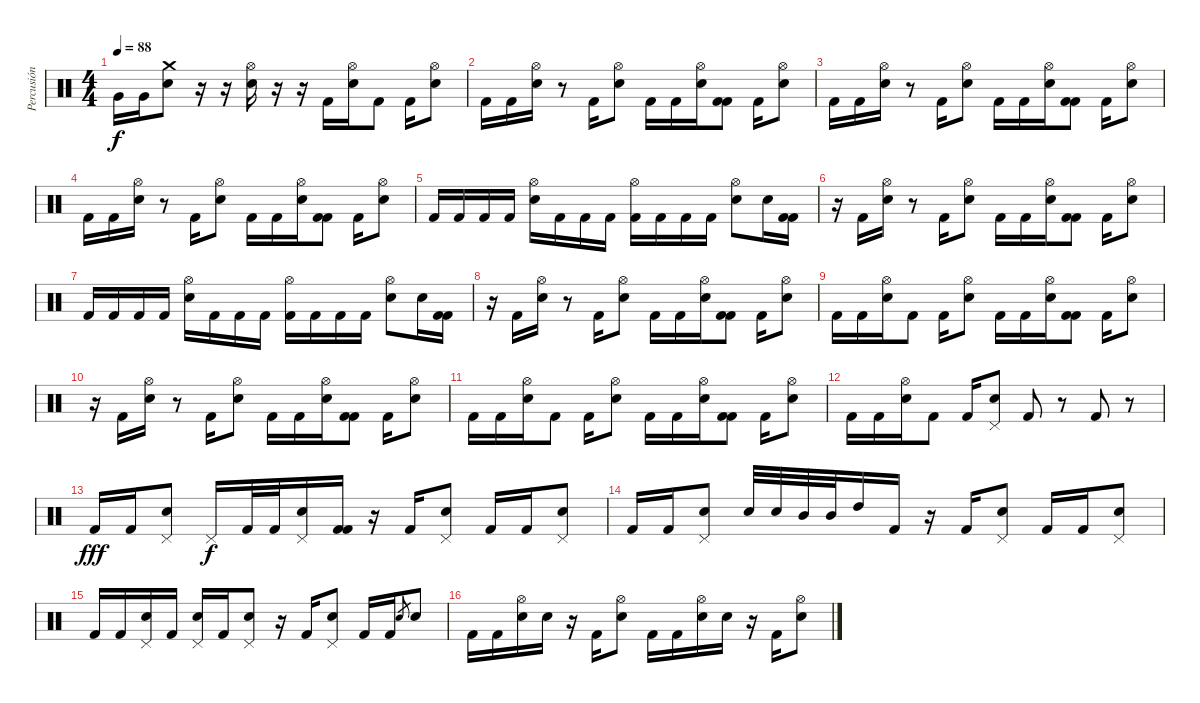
\track ("Percusión" "Percusión") {instrument percussion}
\staff {score}
\articulation defaults
\ts (4 4)
\tempo 88
\clef neutral
\ks c "Very Low Tom (hit)".16{dy f} "Very Low Tom (hit)".16
("Electric Snare (hit)" "Crash medium (hit)").8 r.16 r.16 ("Electric Snare (hit)" "Hi-Hat (open)").16 r.16 r.16 "Kick (hit) 2".16 ("Electric Snare (hit)" "Hi-Hat (open)").16 "Kick (hit) 2".8 "Kick (hit) 2".16 ("Electric Snare (hit)" "Hi-Hat (open)").8 |
"Kick (hit) 2".16 "Kick (hit) 2".16 ("Electric Snare (hit)" "Hi-Hat (open)").16 r.8 "Kick (hit) 2".16 ("Electric Snare (hit)" "Hi-Hat (open)").8 "Kick (hit) 2".16 "Kick (hit) 2".16 ("Electric Snare (hit)" "Hi-Hat (open)").16 ("Kick (hit) 2" "Kick (hit) 2").8 "Kick (hit) 2".16 ("Electric Snare (hit)" "Hi-Hat (open)").8 |
"Kick (hit) 2".16 "Kick (hit) 2".16 ("Electric Snare (hit)" "Hi-Hat (open)").16 r.8 "Kick (hit) 2".16 ("Electric Snare (hit)" "Hi-Hat (open)").8 "Kick (hit) 2".16 "Kick (hit) 2".16 ("Electric Snare (hit)" "Hi-Hat (open)").16 ("Kick (hit) 2" "Kick (hit) 2").8 "Kick (hit) 2".16 ("Electric Snare (hit)" "Hi-Hat (open)").8 |
"Kick (hit) 2".16 "Kick (hit) 2".16 ("Electric Snare (hit)" "Hi-Hat (open)").16 r.8 "Kick (hit) 2".16 ("Electric Snare (hit)" "Hi-Hat (open)").8 "Kick (hit) 2".16 "Kick (hit) 2".16 ("Electric Snare (hit)" "Hi-Hat (open)").16 ("Kick (hit) 2" "Kick (hit) 2").8 "Kick (hit) 2".16 ("Electric Snare (hit)" "Hi-Hat (open)").8 |
"Kick (hit) 2".16 "Kick (hit) 2".16 "Kick (hit) 2".16 "Kick (hit) 2".16 ("Electric Snare (hit)" "Hi-Hat (open)").16 "Kick (hit) 2".16 "Kick (hit) 2".16 "Kick (hit) 2".16 ("Kick (hit) 2" "Hi-Hat (open)").16 "Kick (hit) 2".16 "Kick (hit) 2".16 "Kick (hit) 2".16 ("Electric Snare (hit)" "Hi-Hat (open)").8 "Electric Snare (hit)".16 ("Kick (hit) 2" "Kick (hit) 2").16 |
r.16 "Kick (hit) 2".16 ("Electric Snare (hit)" "Hi-Hat (open)").16 r.8 "Kick (hit) 2".16 ("Electric Snare (hit)" "Hi-Hat (open)").8 "Kick (hit) 2".16 "Kick (hit) 2".16 ("Electric Snare (hit)" "Hi-Hat (open)").16 ("Kick (hit) 2" "Kick (hit) 2").8 "Kick (hit) 2".16 ("Electric Snare (hit)" "Hi-Hat (open)").8 |
"Kick (hit) 2".16 "Kick (hit) 2".16 "Kick (hit) 2".16 "Kick (hit) 2".16 ("Electric Snare (hit)" "Hi-Hat (open)").16 "Kick (hit) 2".16 "Kick (hit) 2".16 "Kick (hit) 2".16 ("Kick (hit) 2" "Hi-Hat (open)").16 "Kick (hit) 2".16 "Kick (hit) 2".16 "Kick (hit) 2".16 ("Electric Snare (hit)" "Hi-Hat (open)").8 "Electric Snare (hit)".16 ("Kick (hit) 2" "Kick (hit) 2").16 |
r.16 "Kick (hit) 2".16 ("Electric Snare (hit)" "Hi-Hat (open)").16 r.8 "Kick (hit) 2".16 ("Electric Snare (hit)" "Hi-Hat (open)").8 "Kick (hit) 2".16 "Kick (hit) 2".16 ("Electric Snare (hit)" "Hi-Hat (open)").16 ("Kick (hit) 2" "Kick (hit) 2").8 "Kick (hit) 2".16 ("Electric Snare (hit)" "Hi-Hat (open)").8 |
"Kick (hit) 2".16 "Kick (hit) 2".16 ("Electric Snare (hit)" "Hi-Hat (open)").16 "Kick (hit) 2".8 "Kick (hit) 2".16 ("Electric Snare (hit)" "Hi-Hat (open)").8 "Kick (hit) 2".16 "Kick (hit) 2".16 ("Electric Snare (hit)" "Hi-Hat (open)").16 ("Kick (hit) 2" "Kick (hit) 2").8 "Kick (hit) 2".16 ("Electric Snare (hit)" "Hi-Hat (open)").8 |
r.16 "Kick (hit) 2".16 ("Electric Snare (hit)" "Hi-Hat (open)").16 r.8 "Kick (hit) 2".16 ("Electric Snare (hit)" "Hi-Hat (open)").8 "Kick (hit) 2".16 "Kick (hit) 2".16 ("Electric Snare (hit)" "Hi-Hat (open)").16 ("Kick (hit) 2" "Kick (hit) 2").8 "Kick (hit) 2".16 ("Electric Snare (hit)" "Hi-Hat (open)").8 |
"Kick (hit) 2".16 "Kick (hit) 2".16 ("Electric Snare (hit)" "Hi-Hat (open)").16 "Kick (hit) 2".8 "Kick (hit) 2".16 ("Electric Snare (hit)" "Hi-Hat (open)").8 "Kick (hit) 2".16 "Kick (hit) 2".16 ("Electric Snare (hit)" "Hi-Hat (open)").16 ("Kick (hit) 2" "Kick (hit) 2").8 "Kick (hit) 2".16 ("Electric Snare (hit)" "Hi-Hat (open)").8 |
"Kick (hit) 2".16 "Kick (hit) 2".16 ("Electric Snare (hit)" "Hi-Hat (open)").16 "Kick (hit) 2".8 "Kick (hit) 2".16 ("Electric Snare (hit)" "Pedal Hi-Hat (hit)").8 "Kick (hit) 2".8 r.8 "Kick (hit) 2".8 r.8 |
"Kick (hit) 2".16{dy fff} "Kick (hit) 2".16 ("Electric Snare (hit)" "Pedal Hi-Hat (hit)").8 "Pedal Hi-Hat (hit)".16{dy f} "Kick (hit) 2".32 "Kick (hit) 2".32 ("Electric Snare (hit)" "Pedal Hi-Hat (hit)").16 ("Kick (hit) 2" "Kick (hit) 2").16 r.16 "Kick (hit) 2".16 ("Electric Snare (hit)" "Pedal Hi-Hat (hit)").8 "Kick (hit) 2".16 "Kick (hit) 2".16 ("Electric Snare (hit)" "Pedal Hi-Hat (hit)").8 |
"Kick (hit) 2".16 "Kick (hit) 2".16 ("Electric Snare (hit)" "Pedal Hi-Hat (hit)").8 "Electric Snare (hit)".32 "Electric Snare (hit)".32 "Mid Tom (hit)".32 "Mid Tom (hit)".32 "High Tom (hit)".16 "Kick (hit) 2".16 r.16 "Kick (hit) 2".16 ("Electric Snare (hit)" "Pedal Hi-Hat (hit)").8 "Kick (hit) 2".16 "Kick (hit) 2".16 ("Electric Snare (hit)" "Pedal Hi-Hat (hit)").8 |
"Kick (hit) 2".16 "Kick (hit) 2".16 ("Electric Snare (hit)" "Pedal Hi-Hat (hit)").16 "Kick (hit) 2".16 ("Electric Snare (hit)" "Pedal Hi-Hat (hit)").16 "Kick (hit) 2".16 ("Electric Snare (hit)" "Pedal Hi-Hat (hit)").8 r.16 "Kick (hit) 2".16 ("Electric Snare (hit)" "Pedal Hi-Hat (hit)").8 "Kick (hit) 2".16 "Kick (hit) 2".16 "Electric Snare (hit)".8{gr} "Electric Snare (hit)".8 |
"Kick (hit) 2".16 "Kick (hit) 2".16 ("Electric Snare (hit)" "Hi-Hat (open)").16 "Electric Snare (hit)".16 r.16 "Kick (hit) 2".16 ("Electric Snare (hit)" "Hi-Hat (open)").8 "Kick (hit) 2".16 "Kick (hit) 2".16 ("Electric Snare (hit)" "Hi-Hat (open)").16 "Electric Snare (hit)".16 r.16 "Kick (hit) 2".16 ("Electric Snare (hit)" "Hi-Hat (open)").8
